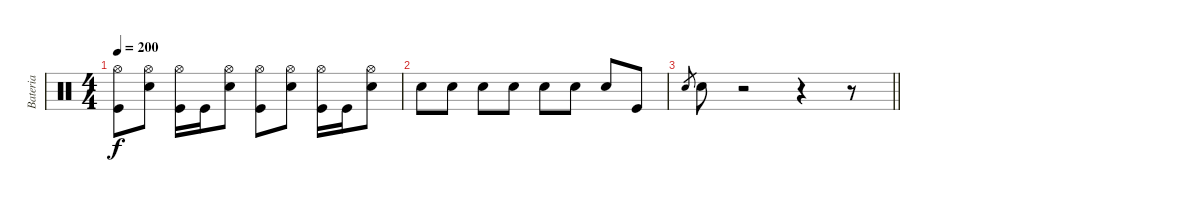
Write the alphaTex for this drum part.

\track ("Bateria" "Bateria") {instrument percussion}
\staff {score}
\articulation defaults
\ts (4 4)
\tempo 200
\clef neutral
\ks c
("Hi-Hat (open)" "Kick (hit)").8{dy f} ("Hi-Hat (open)" "Snare (hit) 2").8 ("Hi-Hat (open)" "Kick (hit)").16 "Kick (hit)".16 ("Hi-Hat (open)" "Snare (hit) 2").8 ("Hi-Hat (open)" "Kick (hit)").8 ("Hi-Hat (open)" "Snare (hit) 2").8 ("Hi-Hat (open)" "Kick (hit)").16 "Kick (hit)".16 ("Hi-Hat (open)" "Snare (hit) 2").8 |
"Snare (hit) 2".8 "Snare (hit) 2".8 "Snare (hit) 2".8 "Snare (hit) 2".8 "Snare (hit) 2".8 "Snare (hit) 2".8 "Snare (hit) 2".8 "Kick (hit)".8 |
\barLineRight lightlight "Snare (hit) 2".8{gr} "Snare (hit) 2".8
r.2 r.4 r.8
